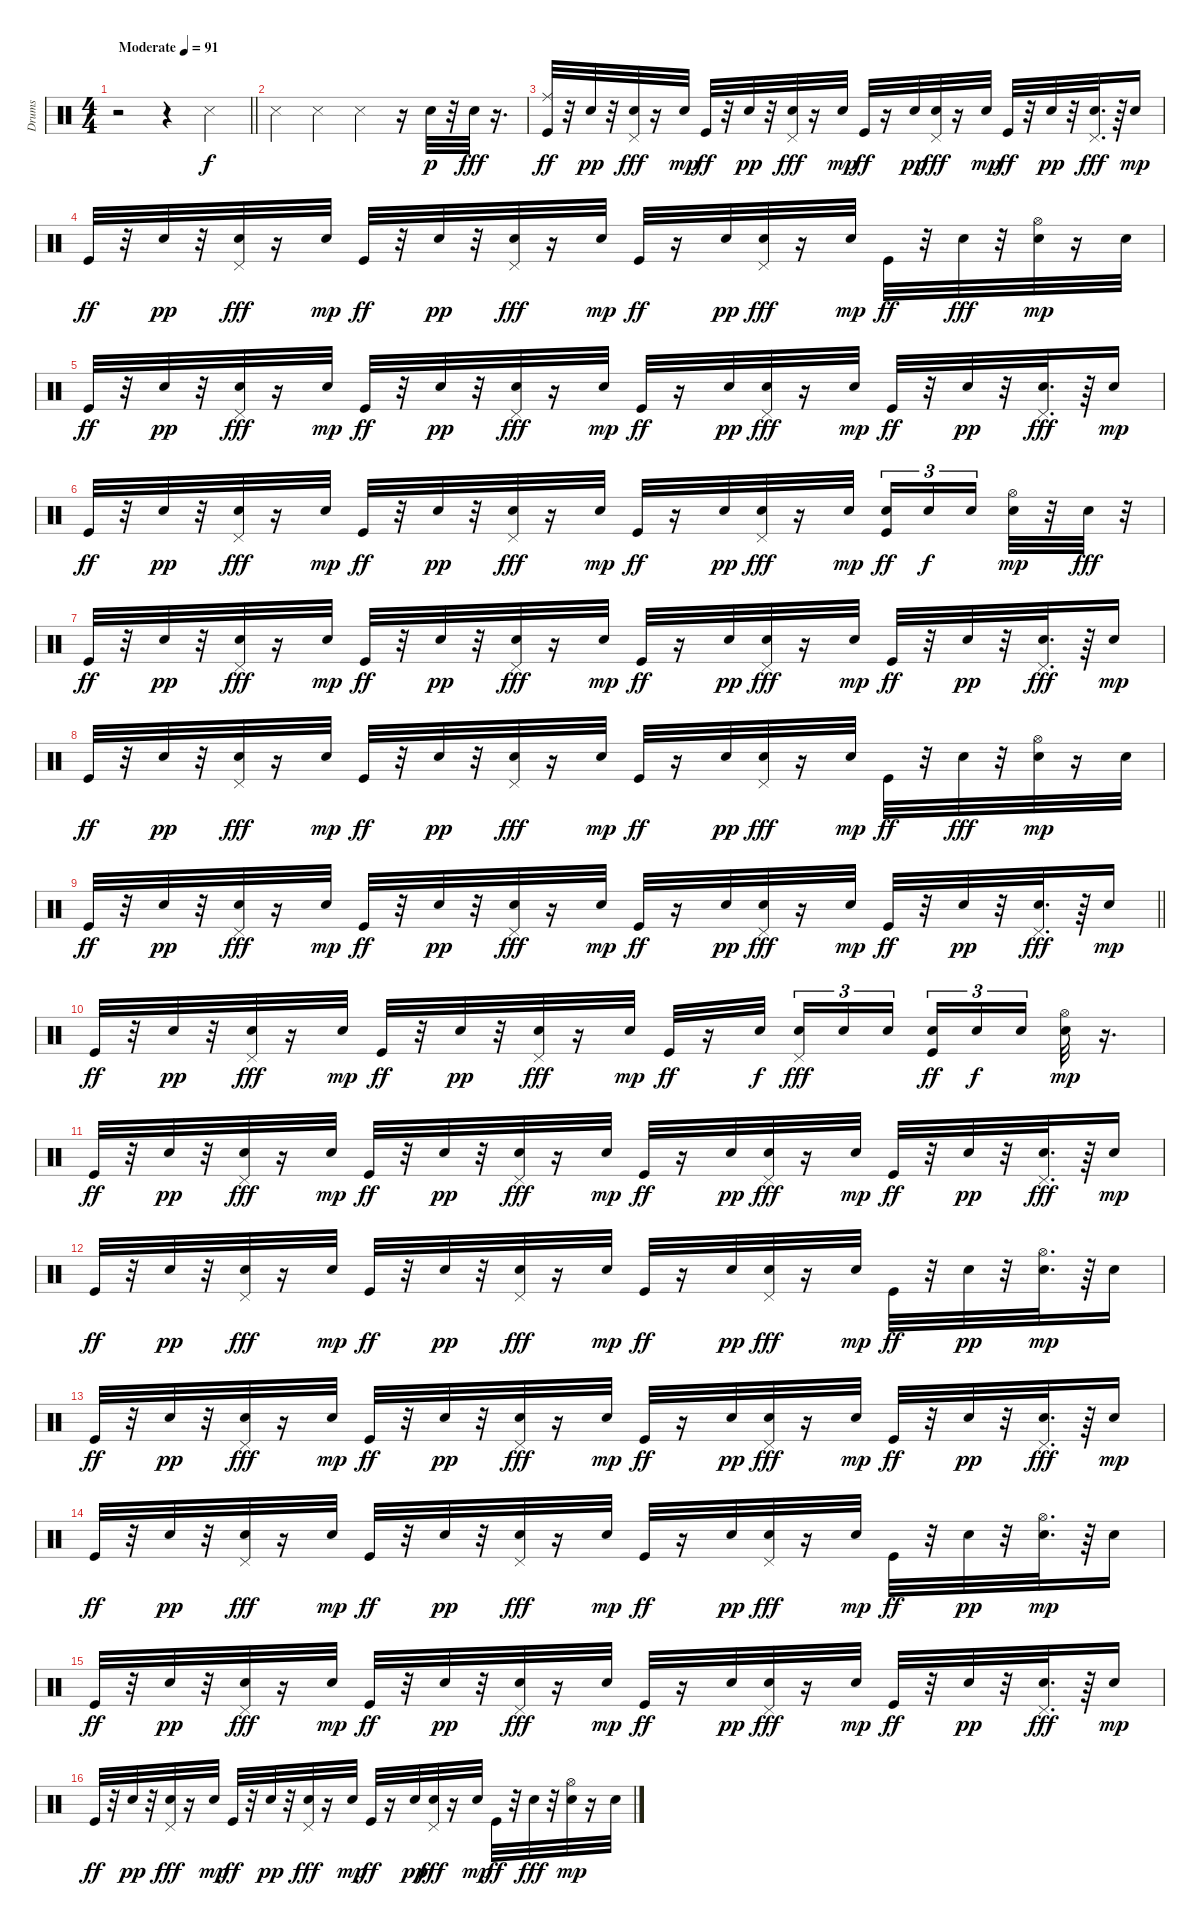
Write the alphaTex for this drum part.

\track ("Drums" "Drums") {instrument percussion}
\staff {score}
\articulation defaults
\ts (4 4)
\tempo (91 "Moderate")
\clef neutral
\barLineRight lightlight
\ks c
r.2{dy f} r.4 "Snare (side stick) 3".4 |
\section ("" "")
"Snare (side stick) 3".4 "Snare (side stick) 3".4 "Snare (side stick) 3".4 r.16 "Snare (hit) 2".32{dy p} r.32 "Snare (hit) 2".32{dy fff} r.16{d} |
("Kick (hit)" "Ride (middle)").32{dy ff} r.32 "Snare (hit) 2".32{dy pp} r.32 ("Snare (hit) 2" "Pedal Hi-Hat (hit)").32{dy fff} r.16 "Snare (hit) 2".32{dy mp} "Kick (hit)".32{dy ff} r.32 "Snare (hit) 2".32{dy pp} r.32 ("Snare (hit) 2" "Pedal Hi-Hat (hit)").32{dy fff} r.16 "Snare (hit) 2".32{dy mp} "Kick (hit)".32{dy ff} r.16 "Snare (hit) 2".32{dy pp} ("Snare (hit) 2" "Pedal Hi-Hat (hit)").32{dy fff} r.16 "Snare (hit) 2".32{dy mp} "Kick (hit)".32{dy ff} r.32 "Snare (hit) 2".32{dy pp} r.32 ("Snare (hit) 2" "Pedal Hi-Hat (hit)").32{d dy fff} r.64 "Snare (hit) 2".16{dy mp} |
"Kick (hit)".32{dy ff} r.32 "Snare (hit) 2".32{dy pp} r.32 ("Snare (hit) 2" "Pedal Hi-Hat (hit)").32{dy fff} r.16 "Snare (hit) 2".32{dy mp} "Kick (hit)".32{dy ff} r.32 "Snare (hit) 2".32{dy pp} r.32 ("Snare (hit) 2" "Pedal Hi-Hat (hit)").32{dy fff} r.16 "Snare (hit) 2".32{dy mp} "Kick (hit)".32{dy ff} r.16 "Snare (hit) 2".32{dy pp} ("Snare (hit) 2" "Pedal Hi-Hat (hit)").32{dy fff} r.16 "Snare (hit) 2".32{dy mp} "Kick (hit)".32{dy ff} r.32 "Snare (hit) 2".32{dy fff} r.32 ("Snare (hit) 2" "Hi-Hat (open)").32{dy mp} r.16 "Snare (hit) 2".32 |
"Kick (hit)".32{dy ff} r.32 "Snare (hit) 2".32{dy pp} r.32 ("Snare (hit) 2" "Pedal Hi-Hat (hit)").32{dy fff} r.16 "Snare (hit) 2".32{dy mp} "Kick (hit)".32{dy ff} r.32 "Snare (hit) 2".32{dy pp} r.32 ("Snare (hit) 2" "Pedal Hi-Hat (hit)").32{dy fff} r.16 "Snare (hit) 2".32{dy mp} "Kick (hit)".32{dy ff} r.16 "Snare (hit) 2".32{dy pp} ("Snare (hit) 2" "Pedal Hi-Hat (hit)").32{dy fff} r.16 "Snare (hit) 2".32{dy mp} "Kick (hit)".32{dy ff} r.32 "Snare (hit) 2".32{dy pp} r.32 ("Snare (hit) 2" "Pedal Hi-Hat (hit)").32{d dy fff} r.64 "Snare (hit) 2".16{dy mp} |
"Kick (hit)".32{dy ff} r.32 "Snare (hit) 2".32{dy pp} r.32 ("Snare (hit) 2" "Pedal Hi-Hat (hit)").32{dy fff} r.16 "Snare (hit) 2".32{dy mp} "Kick (hit)".32{dy ff} r.32 "Snare (hit) 2".32{dy pp} r.32 ("Snare (hit) 2" "Pedal Hi-Hat (hit)").32{dy fff} r.16 "Snare (hit) 2".32{dy mp} "Kick (hit)".32{dy ff} r.16 "Snare (hit) 2".32{dy pp} ("Snare (hit) 2" "Pedal Hi-Hat (hit)").32{dy fff} r.16 "Snare (hit) 2".32{dy mp} ("Kick (hit)" "Snare (hit) 2").16{tu (3 2) dy ff} "Snare (hit) 2".16{tu (3 2) dy f} "Snare (hit) 2".16{tu (3 2) beam splitsecondary} ("Snare (hit) 2" "Hi-Hat (open)").32{dy mp} r.32 "Snare (hit) 2".32{dy fff} r.32 |
"Kick (hit)".32{dy ff} r.32 "Snare (hit) 2".32{dy pp} r.32 ("Snare (hit) 2" "Pedal Hi-Hat (hit)").32{dy fff} r.16 "Snare (hit) 2".32{dy mp} "Kick (hit)".32{dy ff} r.32 "Snare (hit) 2".32{dy pp} r.32 ("Snare (hit) 2" "Pedal Hi-Hat (hit)").32{dy fff} r.16 "Snare (hit) 2".32{dy mp} "Kick (hit)".32{dy ff} r.16 "Snare (hit) 2".32{dy pp} ("Snare (hit) 2" "Pedal Hi-Hat (hit)").32{dy fff} r.16 "Snare (hit) 2".32{dy mp} "Kick (hit)".32{dy ff} r.32 "Snare (hit) 2".32{dy pp} r.32 ("Snare (hit) 2" "Pedal Hi-Hat (hit)").32{d dy fff} r.64 "Snare (hit) 2".16{dy mp} |
"Kick (hit)".32{dy ff} r.32 "Snare (hit) 2".32{dy pp} r.32 ("Snare (hit) 2" "Pedal Hi-Hat (hit)").32{dy fff} r.16 "Snare (hit) 2".32{dy mp} "Kick (hit)".32{dy ff} r.32 "Snare (hit) 2".32{dy pp} r.32 ("Snare (hit) 2" "Pedal Hi-Hat (hit)").32{dy fff} r.16 "Snare (hit) 2".32{dy mp} "Kick (hit)".32{dy ff} r.16 "Snare (hit) 2".32{dy pp} ("Snare (hit) 2" "Pedal Hi-Hat (hit)").32{dy fff} r.16 "Snare (hit) 2".32{dy mp} "Kick (hit)".32{dy ff} r.32 "Snare (hit) 2".32{dy fff} r.32 ("Snare (hit) 2" "Hi-Hat (open)").32{dy mp} r.16 "Snare (hit) 2".32 |
\barLineRight lightlight "Kick (hit)".32{dy ff}
r.32 "Snare (hit) 2".32{dy pp} r.32 ("Snare (hit) 2" "Pedal Hi-Hat (hit)").32{dy fff} r.16 "Snare (hit) 2".32{dy mp} "Kick (hit)".32{dy ff} r.32 "Snare (hit) 2".32{dy pp} r.32 ("Snare (hit) 2" "Pedal Hi-Hat (hit)").32{dy fff} r.16 "Snare (hit) 2".32{dy mp} "Kick (hit)".32{dy ff} r.16 "Snare (hit) 2".32{dy pp} ("Snare (hit) 2" "Pedal Hi-Hat (hit)").32{dy fff} r.16 "Snare (hit) 2".32{dy mp} "Kick (hit)".32{dy ff} r.32 "Snare (hit) 2".32{dy pp} r.32 ("Snare (hit) 2" "Pedal Hi-Hat (hit)").32{d dy fff} r.64 "Snare (hit) 2".16{dy mp} |
\section ("" "")
"Kick (hit)".32{dy ff} r.32 "Snare (hit) 2".32{dy pp} r.32 ("Snare (hit) 2" "Pedal Hi-Hat (hit)").32{dy fff} r.16 "Snare (hit) 2".32{dy mp} "Kick (hit)".32{dy ff} r.32 "Snare (hit) 2".32{dy pp} r.32 ("Snare (hit) 2" "Pedal Hi-Hat (hit)").32{dy fff} r.16 "Snare (hit) 2".32{dy mp} "Kick (hit)".32{dy ff} r.16 "Snare (hit) 2".32{dy f beam splitsecondary} ("Snare (hit) 2" "Pedal Hi-Hat (hit)").16{tu (3 2) dy fff} "Snare (hit) 2".16{tu (3 2)} "Snare (hit) 2".16{tu (3 2)} ("Kick (hit)" "Snare (hit) 2").16{tu (3 2) dy ff} "Snare (hit) 2".16{tu (3 2) dy f} "Snare (hit) 2".16{tu (3 2) beam splitsecondary} ("Hand Clap (hit)" "Hi-Hat (open)").32{dy mp} r.16{d} |
"Kick (hit)".32{dy ff} r.32 "Snare (hit) 2".32{dy pp} r.32 ("Snare (hit) 2" "Pedal Hi-Hat (hit)").32{dy fff} r.16 "Snare (hit) 2".32{dy mp} "Kick (hit)".32{dy ff} r.32 "Snare (hit) 2".32{dy pp} r.32 ("Snare (hit) 2" "Pedal Hi-Hat (hit)").32{dy fff} r.16 "Snare (hit) 2".32{dy mp} "Kick (hit)".32{dy ff} r.16 "Snare (hit) 2".32{dy pp} ("Snare (hit) 2" "Pedal Hi-Hat (hit)").32{dy fff} r.16 "Snare (hit) 2".32{dy mp} "Kick (hit)".32{dy ff} r.32 "Snare (hit) 2".32{dy pp} r.32 ("Snare (hit) 2" "Pedal Hi-Hat (hit)").32{d dy fff} r.64 "Snare (hit) 2".16{dy mp} |
"Kick (hit)".32{dy ff} r.32 "Snare (hit) 2".32{dy pp} r.32 ("Snare (hit) 2" "Pedal Hi-Hat (hit)").32{dy fff} r.16 "Snare (hit) 2".32{dy mp} "Kick (hit)".32{dy ff} r.32 "Snare (hit) 2".32{dy pp} r.32 ("Snare (hit) 2" "Pedal Hi-Hat (hit)").32{dy fff} r.16 "Snare (hit) 2".32{dy mp} "Kick (hit)".32{dy ff} r.16 "Snare (hit) 2".32{dy pp} ("Snare (hit) 2" "Pedal Hi-Hat (hit)").32{dy fff} r.16 "Snare (hit) 2".32{dy mp} "Kick (hit)".32{dy ff} r.32 "Snare (hit) 2".32{dy pp} r.32 ("Snare (hit) 2" "Hi-Hat (open)").32{d dy mp} r.64 "Snare (hit) 2".16 |
"Kick (hit)".32{dy ff} r.32 "Snare (hit) 2".32{dy pp} r.32 ("Snare (hit) 2" "Pedal Hi-Hat (hit)").32{dy fff} r.16 "Snare (hit) 2".32{dy mp} "Kick (hit)".32{dy ff} r.32 "Snare (hit) 2".32{dy pp} r.32 ("Snare (hit) 2" "Pedal Hi-Hat (hit)").32{dy fff} r.16 "Snare (hit) 2".32{dy mp} "Kick (hit)".32{dy ff} r.16 "Snare (hit) 2".32{dy pp} ("Snare (hit) 2" "Pedal Hi-Hat (hit)").32{dy fff} r.16 "Snare (hit) 2".32{dy mp} "Kick (hit)".32{dy ff} r.32 "Snare (hit) 2".32{dy pp} r.32 ("Snare (hit) 2" "Pedal Hi-Hat (hit)").32{d dy fff} r.64 "Snare (hit) 2".16{dy mp} |
"Kick (hit)".32{dy ff} r.32 "Snare (hit) 2".32{dy pp} r.32 ("Snare (hit) 2" "Pedal Hi-Hat (hit)").32{dy fff} r.16 "Snare (hit) 2".32{dy mp} "Kick (hit)".32{dy ff} r.32 "Snare (hit) 2".32{dy pp} r.32 ("Snare (hit) 2" "Pedal Hi-Hat (hit)").32{dy fff} r.16 "Snare (hit) 2".32{dy mp} "Kick (hit)".32{dy ff} r.16 "Snare (hit) 2".32{dy pp} ("Snare (hit) 2" "Pedal Hi-Hat (hit)").32{dy fff} r.16 "Snare (hit) 2".32{dy mp} "Kick (hit)".32{dy ff} r.32 "Snare (hit) 2".32{dy pp} r.32 ("Snare (hit) 2" "Hi-Hat (open)").32{d dy mp} r.64 "Snare (hit) 2".16 |
"Kick (hit)".32{dy ff} r.32 "Snare (hit) 2".32{dy pp} r.32 ("Snare (hit) 2" "Pedal Hi-Hat (hit)").32{dy fff} r.16 "Snare (hit) 2".32{dy mp} "Kick (hit)".32{dy ff} r.32 "Snare (hit) 2".32{dy pp} r.32 ("Snare (hit) 2" "Pedal Hi-Hat (hit)").32{dy fff} r.16 "Snare (hit) 2".32{dy mp} "Kick (hit)".32{dy ff} r.16 "Snare (hit) 2".32{dy pp} ("Snare (hit) 2" "Pedal Hi-Hat (hit)").32{dy fff} r.16 "Snare (hit) 2".32{dy mp} "Kick (hit)".32{dy ff} r.32 "Snare (hit) 2".32{dy pp} r.32 ("Snare (hit) 2" "Pedal Hi-Hat (hit)").32{d dy fff} r.64 "Snare (hit) 2".16{dy mp} |
"Kick (hit)".32{dy ff} r.32 "Snare (hit) 2".32{dy pp} r.32 ("Snare (hit) 2" "Pedal Hi-Hat (hit)").32{dy fff} r.16 "Snare (hit) 2".32{dy mp} "Kick (hit)".32{dy ff} r.32 "Snare (hit) 2".32{dy pp} r.32 ("Snare (hit) 2" "Pedal Hi-Hat (hit)").32{dy fff} r.16 "Snare (hit) 2".32{dy mp} "Kick (hit)".32{dy ff} r.16 "Snare (hit) 2".32{dy pp} ("Snare (hit) 2" "Pedal Hi-Hat (hit)").32{dy fff} r.16 "Snare (hit) 2".32{dy mp} "Kick (hit)".32{dy ff} r.32 "Snare (hit) 2".32{dy fff} r.32 ("Snare (hit) 2" "Hi-Hat (open)").32{dy mp} r.16 "Snare (hit) 2".32
